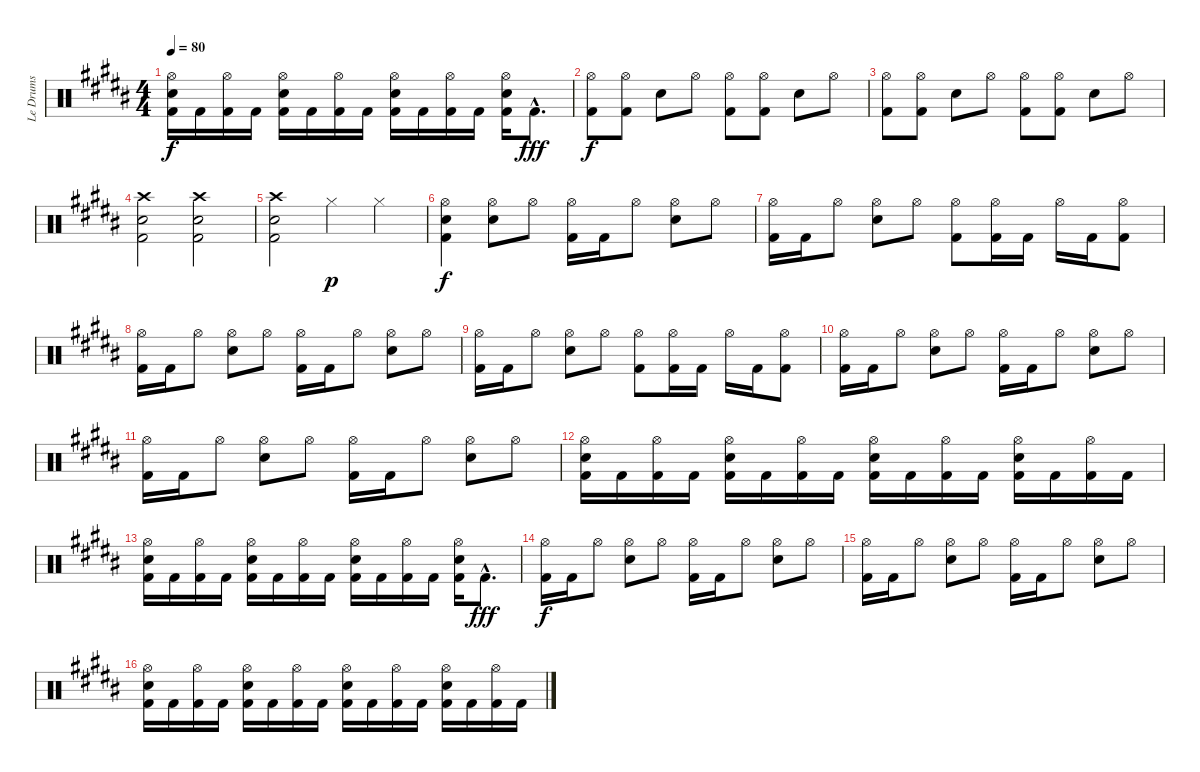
\track ("Le Drums" "Le Drums") {instrument percussion}
\staff {score}
\articulation defaults
\ts (4 4)
\tempo 80
\clef neutral
\ks b
("Hi-Hat (open)" "Snare (hit) 2" "Kick (hit) 2").16{dy f} "Kick (hit) 2".16 ("Hi-Hat (open)" "Kick (hit) 2").16 "Kick (hit) 2".16 ("Hi-Hat (open)" "Snare (hit) 2" "Kick (hit) 2").16 "Kick (hit) 2".16 ("Hi-Hat (open)" "Kick (hit) 2").16 "Kick (hit) 2".16 ("Hi-Hat (open)" "Snare (hit) 2" "Kick (hit) 2").16 "Kick (hit) 2".16 ("Hi-Hat (open)" "Kick (hit) 2").16 "Kick (hit) 2".16 ("Hi-Hat (open)" "Snare (hit) 2" "Kick (hit) 2").16 "Kick (hit) 2"{hac}.8{d dy fff} |
("Hi-Hat (open)" "Kick (hit) 2").8{dy f} ("Hi-Hat (open)" "Kick (hit) 2").8 "Snare (hit) 2".8 "Hi-Hat (open)".8 ("Hi-Hat (open)" "Kick (hit) 2").8 ("Hi-Hat (open)" "Kick (hit) 2").8 "Snare (hit) 2".8 "Hi-Hat (open)".8 |
("Hi-Hat (open)" "Kick (hit) 2").8 ("Hi-Hat (open)" "Kick (hit) 2").8 "Snare (hit) 2".8 "Hi-Hat (open)".8 ("Hi-Hat (open)" "Kick (hit) 2").8 ("Hi-Hat (open)" "Kick (hit) 2").8 "Snare (hit) 2".8 "Hi-Hat (open)".8 |
("Crash high (hit)" "Snare (hit) 2" "Kick (hit) 2").2 ("Crash high (hit)" "Snare (hit) 2" "Kick (hit) 2").2 |
("Crash high (hit)" "Snare (hit) 2" "Kick (hit) 2").2 "Hi-Hat (closed)".4{dy p} "Hi-Hat (closed)".4 |
("Hi-Hat (open)" "Snare (hit) 2" "Kick (hit) 2").4{dy f} ("Hi-Hat (open)" "Snare (hit) 2").8 "Hi-Hat (open)".8 ("Hi-Hat (open)" "Kick (hit) 2").16 "Kick (hit) 2".16 "Hi-Hat (open)".8 ("Hi-Hat (open)" "Snare (hit) 2").8 "Hi-Hat (open)".8 |
("Hi-Hat (open)" "Kick (hit) 2").16 "Kick (hit) 2".16 "Hi-Hat (open)".8 ("Hi-Hat (open)" "Snare (hit) 2").8 "Hi-Hat (open)".8 ("Hi-Hat (open)" "Kick (hit) 2").8 ("Hi-Hat (open)" "Kick (hit) 2").16 "Kick (hit) 2".16 "Hi-Hat (open)".16 "Kick (hit) 2".16 ("Hi-Hat (open)" "Kick (hit) 2").8 |
("Hi-Hat (open)" "Kick (hit) 2").16 "Kick (hit) 2".16 "Hi-Hat (open)".8 ("Hi-Hat (open)" "Snare (hit) 2").8 "Hi-Hat (open)".8 ("Hi-Hat (open)" "Kick (hit) 2").16 "Kick (hit) 2".16 "Hi-Hat (open)".8 ("Hi-Hat (open)" "Snare (hit) 2").8 "Hi-Hat (open)".8 |
("Hi-Hat (open)" "Kick (hit) 2").16 "Kick (hit) 2".16 "Hi-Hat (open)".8 ("Hi-Hat (open)" "Snare (hit) 2").8 "Hi-Hat (open)".8 ("Hi-Hat (open)" "Kick (hit) 2").8 ("Hi-Hat (open)" "Kick (hit) 2").16 "Kick (hit) 2".16 "Hi-Hat (open)".16 "Kick (hit) 2".16 ("Hi-Hat (open)" "Kick (hit) 2").8 |
("Hi-Hat (open)" "Kick (hit) 2").16 "Kick (hit) 2".16 "Hi-Hat (open)".8 ("Hi-Hat (open)" "Snare (hit) 2").8 "Hi-Hat (open)".8 ("Hi-Hat (open)" "Kick (hit) 2").16 "Kick (hit) 2".16 "Hi-Hat (open)".8 ("Hi-Hat (open)" "Snare (hit) 2").8 "Hi-Hat (open)".8 |
("Hi-Hat (open)" "Kick (hit) 2").16 "Kick (hit) 2".16 "Hi-Hat (open)".8 ("Hi-Hat (open)" "Snare (hit) 2").8 "Hi-Hat (open)".8 ("Hi-Hat (open)" "Kick (hit) 2").16 "Kick (hit) 2".16 "Hi-Hat (open)".8 ("Hi-Hat (open)" "Snare (hit) 2").8 "Hi-Hat (open)".8 |
("Hi-Hat (open)" "Snare (hit) 2" "Kick (hit) 2").16 "Kick (hit) 2".16 ("Hi-Hat (open)" "Kick (hit) 2").16 "Kick (hit) 2".16 ("Hi-Hat (open)" "Snare (hit) 2" "Kick (hit) 2").16 "Kick (hit) 2".16 ("Hi-Hat (open)" "Kick (hit) 2").16 "Kick (hit) 2".16 ("Hi-Hat (open)" "Snare (hit) 2" "Kick (hit) 2").16 "Kick (hit) 2".16 ("Hi-Hat (open)" "Kick (hit) 2").16 "Kick (hit) 2".16 ("Hi-Hat (open)" "Snare (hit) 2" "Kick (hit) 2").16 "Kick (hit) 2".16 ("Hi-Hat (open)" "Kick (hit) 2").16 "Kick (hit) 2".16 |
("Hi-Hat (open)" "Snare (hit) 2" "Kick (hit) 2").16 "Kick (hit) 2".16 ("Hi-Hat (open)" "Kick (hit) 2").16 "Kick (hit) 2".16 ("Hi-Hat (open)" "Snare (hit) 2" "Kick (hit) 2").16 "Kick (hit) 2".16 ("Hi-Hat (open)" "Kick (hit) 2").16 "Kick (hit) 2".16 ("Hi-Hat (open)" "Snare (hit) 2" "Kick (hit) 2").16 "Kick (hit) 2".16 ("Hi-Hat (open)" "Kick (hit) 2").16 "Kick (hit) 2".16 ("Hi-Hat (open)" "Snare (hit) 2" "Kick (hit) 2").16 "Kick (hit) 2"{hac}.8{d dy fff} |
("Hi-Hat (open)" "Kick (hit) 2").16{dy f} "Kick (hit) 2".16 "Hi-Hat (open)".8 ("Hi-Hat (open)" "Snare (hit) 2").8 "Hi-Hat (open)".8 ("Hi-Hat (open)" "Kick (hit) 2").16 "Kick (hit) 2".16 "Hi-Hat (open)".8 ("Hi-Hat (open)" "Snare (hit) 2").8 "Hi-Hat (open)".8 |
("Hi-Hat (open)" "Kick (hit) 2").16 "Kick (hit) 2".16 "Hi-Hat (open)".8 ("Hi-Hat (open)" "Snare (hit) 2").8 "Hi-Hat (open)".8 ("Hi-Hat (open)" "Kick (hit) 2").16 "Kick (hit) 2".16 "Hi-Hat (open)".8 ("Hi-Hat (open)" "Snare (hit) 2").8 "Hi-Hat (open)".8 |
("Hi-Hat (open)" "Snare (hit) 2" "Kick (hit) 2").16 "Kick (hit) 2".16 ("Hi-Hat (open)" "Kick (hit) 2").16 "Kick (hit) 2".16 ("Hi-Hat (open)" "Snare (hit) 2" "Kick (hit) 2").16 "Kick (hit) 2".16 ("Hi-Hat (open)" "Kick (hit) 2").16 "Kick (hit) 2".16 ("Hi-Hat (open)" "Snare (hit) 2" "Kick (hit) 2").16 "Kick (hit) 2".16 ("Hi-Hat (open)" "Kick (hit) 2").16 "Kick (hit) 2".16 ("Hi-Hat (open)" "Snare (hit) 2" "Kick (hit) 2").16 "Kick (hit) 2".16 ("Hi-Hat (open)" "Kick (hit) 2").16 "Kick (hit) 2".16
